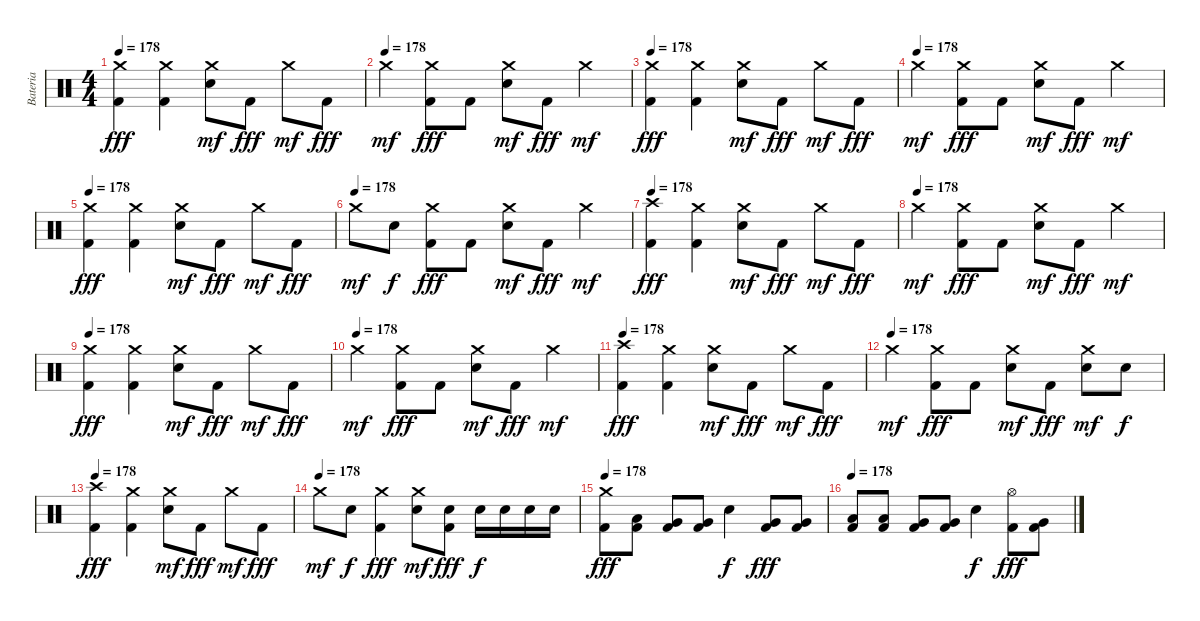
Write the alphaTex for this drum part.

\track ("Bateria" "Bateria") {instrument percussion}
\staff {score}
\articulation defaults
\ts (4 4)
\tempo 178
\clef neutral
\ks c
("Crash medium (hit)" "Kick (hit) 2").4{dy fff} ("Crash medium (hit)" "Kick (hit) 2").4 ("Crash medium (hit)" "Electric Snare (hit)").8{dy mf} "Kick (hit) 2".8{dy fff} "Crash medium (hit)".8{dy mf} "Kick (hit) 2".8{dy fff} |
\tempo (178)
"Crash medium (hit)".4{dy mf} ("Crash medium (hit)" "Kick (hit) 2").8{dy fff} "Kick (hit) 2".8 ("Crash medium (hit)" "Electric Snare (hit)").8{dy mf} "Kick (hit) 2".8{dy fff} "Crash medium (hit)".4{dy mf} |
\tempo 178
("Crash medium (hit)" "Kick (hit) 2").4{dy fff} ("Crash medium (hit)" "Kick (hit) 2").4 ("Crash medium (hit)" "Electric Snare (hit)").8{dy mf} "Kick (hit) 2".8{dy fff} "Crash medium (hit)".8{dy mf} "Kick (hit) 2".8{dy fff} |
\tempo (178)
"Crash medium (hit)".4{dy mf} ("Crash medium (hit)" "Kick (hit) 2").8{dy fff} "Kick (hit) 2".8 ("Crash medium (hit)" "Electric Snare (hit)").8{dy mf} "Kick (hit) 2".8{dy fff} "Crash medium (hit)".4{dy mf} |
\tempo 178
("Crash medium (hit)" "Kick (hit) 2").4{dy fff} ("Crash medium (hit)" "Kick (hit) 2").4 ("Crash medium (hit)" "Electric Snare (hit)").8{dy mf} "Kick (hit) 2".8{dy fff} "Crash medium (hit)".8{dy mf} "Kick (hit) 2".8{dy fff} |
\tempo (178)
"Crash medium (hit)".8{dy mf} "Electric Snare (hit)".8{dy f} ("Crash medium (hit)" "Kick (hit) 2").8{dy fff} "Kick (hit) 2".8 ("Crash medium (hit)" "Electric Snare (hit)").8{dy mf} "Kick (hit) 2".8{dy fff} "Crash medium (hit)".4{dy mf} |
\tempo 178
("Crash high (hit)" "Kick (hit) 2").4{dy fff} ("Crash medium (hit)" "Kick (hit) 2").4 ("Crash medium (hit)" "Electric Snare (hit)").8{dy mf} "Kick (hit) 2".8{dy fff} "Crash medium (hit)".8{dy mf} "Kick (hit) 2".8{dy fff} |
\tempo (178)
"Crash medium (hit)".4{dy mf} ("Crash medium (hit)" "Kick (hit) 2").8{dy fff} "Kick (hit) 2".8 ("Crash medium (hit)" "Electric Snare (hit)").8{dy mf} "Kick (hit) 2".8{dy fff} "Crash medium (hit)".4{dy mf} |
\tempo 178
("Crash medium (hit)" "Kick (hit) 2").4{dy fff} ("Crash medium (hit)" "Kick (hit) 2").4 ("Crash medium (hit)" "Electric Snare (hit)").8{dy mf} "Kick (hit) 2".8{dy fff} "Crash medium (hit)".8{dy mf} "Kick (hit) 2".8{dy fff} |
\tempo (178)
"Crash medium (hit)".4{dy mf} ("Crash medium (hit)" "Kick (hit) 2").8{dy fff} "Kick (hit) 2".8 ("Crash medium (hit)" "Electric Snare (hit)").8{dy mf} "Kick (hit) 2".8{dy fff} "Crash medium (hit)".4{dy mf} |
\tempo 178
("Crash high (hit)" "Kick (hit) 2").4{dy fff} ("Crash medium (hit)" "Kick (hit) 2").4 ("Crash medium (hit)" "Electric Snare (hit)").8{dy mf} "Kick (hit) 2".8{dy fff} "Crash medium (hit)".8{dy mf} "Kick (hit) 2".8{dy fff} |
\tempo (178)
"Crash medium (hit)".4{dy mf} ("Crash medium (hit)" "Kick (hit) 2").8{dy fff} "Kick (hit) 2".8 ("Crash medium (hit)" "Electric Snare (hit)").8{dy mf} "Kick (hit) 2".8{dy fff} ("Crash medium (hit)" "Electric Snare (hit)").8{dy mf} "Electric Snare (hit)".8{dy f} |
\tempo 178
("Crash high (hit)" "Kick (hit) 2").4{dy fff} ("Crash medium (hit)" "Kick (hit) 2").4 ("Crash medium (hit)" "Electric Snare (hit)").8{dy mf} "Kick (hit) 2".8{dy fff} "Crash medium (hit)".8{dy mf} "Kick (hit) 2".8{dy fff} |
\tempo (178)
"Crash medium (hit)".8{dy mf} "Electric Snare (hit)".8{dy f} ("Crash medium (hit)" "Kick (hit) 2").4{dy fff} ("Crash medium (hit)" "Electric Snare (hit)").8{dy mf} ("Electric Snare (hit)" "Kick (hit) 2").8{dy fff} "Electric Snare (hit)".16{dy f} "Electric Snare (hit)".16 "Electric Snare (hit)".16 "Electric Snare (hit)".16 |
\tempo 178
("Crash medium (hit)" "Kick (hit) 2").8{dy fff} ("Low Tom (hit)" "Kick (hit) 2").8 ("Very Low Tom (hit)" "Kick (hit) 2").8 ("Very Low Tom (hit)" "Kick (hit) 2").8 "Electric Snare (hit)".4{dy f} ("Very Low Tom (hit)" "Kick (hit) 2").8{dy fff} ("Very Low Tom (hit)" "Kick (hit) 2").8 |
\tempo 178
("Low Tom (hit)" "Kick (hit) 2").8 ("Low Tom (hit)" "Kick (hit) 2").8 ("Very Low Tom (hit)" "Kick (hit) 2").8 ("Very Low Tom (hit)" "Kick (hit) 2").8 "Electric Snare (hit)".4{dy f} ("Hi-Hat (open)" "Kick (hit) 2").8{dy fff} ("Very Low Tom (hit)" "Kick (hit) 2").8
